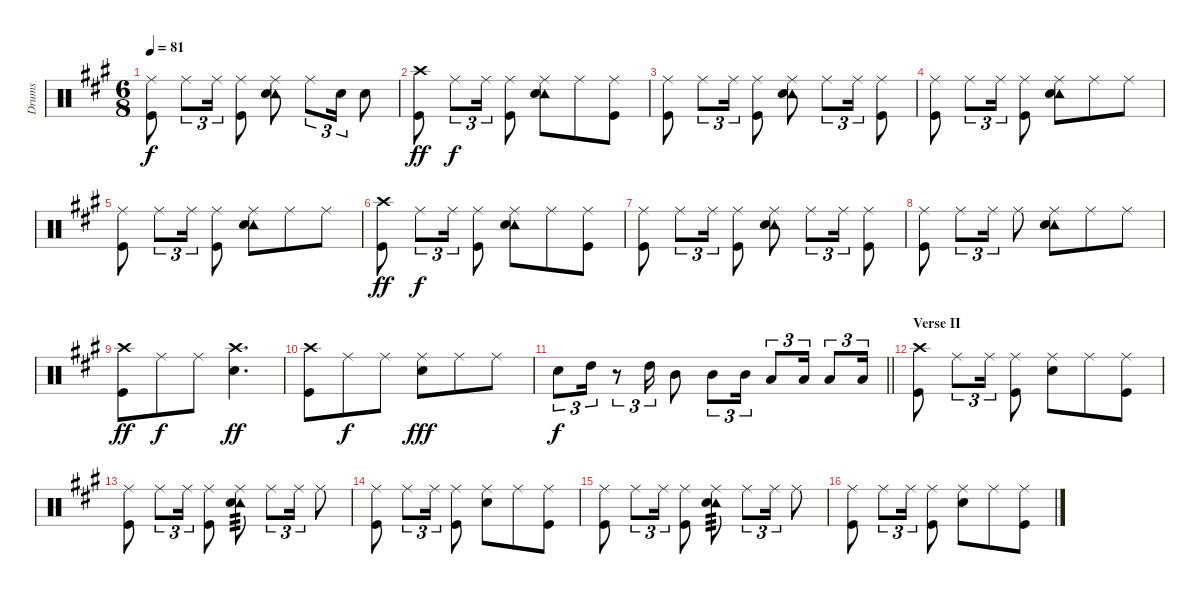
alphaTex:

\track ("Drums" "Drums") {instrument percussion}
\staff {score}
\articulation defaults
\ts (6 8)
\tempo 81
\clef neutral
\ks a
("Ride (middle)" "Kick (hit)").8{dy f} "Ride (middle)".8{tu (3 2)} "Ride (middle)".16{tu (3 2)} ("Ride (middle)" "Kick (hit)").8 ("Ride (middle)" "Tambourine (hit)" "Snare (hit) 2").8 "Ride (middle)".8{tu (3 2)} "Snare (hit) 2".16{tu (3 2)} "Snare (hit) 2".8 |
("Crash high (hit)" "Kick (hit)").8{dy ff} "Ride (middle)".8{tu (3 2) dy f} "Ride (middle)".16{tu (3 2)} ("Ride (middle)" "Kick (hit)").8 ("Ride (middle)" "Tambourine (hit)" "Snare (hit) 2").8 "Ride (middle)".8 ("Ride (middle)" "Kick (hit)").8 |
("Ride (middle)" "Kick (hit)").8 "Ride (middle)".8{tu (3 2)} "Ride (middle)".16{tu (3 2)} ("Ride (middle)" "Kick (hit)").8 ("Ride (middle)" "Tambourine (hit)" "Snare (hit) 2").8 "Ride (middle)".8{tu (3 2)} "Ride (middle)".16{tu (3 2)} ("Ride (middle)" "Kick (hit)").8 |
("Ride (middle)" "Kick (hit)").8 "Ride (middle)".8{tu (3 2)} "Ride (middle)".16{tu (3 2)} ("Ride (middle)" "Kick (hit)").8 ("Ride (middle)" "Tambourine (hit)" "Snare (hit) 2").8 "Ride (middle)".8 "Ride (middle)".8 |
("Ride (middle)" "Kick (hit)").8 "Ride (middle)".8{tu (3 2)} "Ride (middle)".16{tu (3 2)} ("Ride (middle)" "Kick (hit)").8 ("Ride (middle)" "Tambourine (hit)" "Snare (hit) 2").8 "Ride (middle)".8 "Ride (middle)".8 |
("Crash high (hit)" "Kick (hit)").8{dy ff} "Ride (middle)".8{tu (3 2) dy f} "Ride (middle)".16{tu (3 2)} ("Ride (middle)" "Kick (hit)").8 ("Ride (middle)" "Tambourine (hit)" "Snare (hit) 2").8 "Ride (middle)".8 ("Ride (middle)" "Kick (hit)").8 |
("Ride (middle)" "Kick (hit)").8 "Ride (middle)".8{tu (3 2)} "Ride (middle)".16{tu (3 2)} ("Ride (middle)" "Kick (hit)").8 ("Ride (middle)" "Tambourine (hit)" "Snare (hit) 2").8 "Ride (middle)".8{tu (3 2)} "Ride (middle)".16{tu (3 2)} ("Ride (middle)" "Kick (hit)").8 |
("Ride (middle)" "Kick (hit)").8 "Ride (middle)".8{tu (3 2)} "Ride (middle)".16{tu (3 2)} "Ride (middle)".8 ("Ride (middle)" "Tambourine (hit)" "Snare (hit) 2").8 "Ride (middle)".8 "Ride (middle)".8 |
("Crash high (hit)" "Kick (hit)").8{dy ff} "Ride (middle)".8{dy f} "Ride (middle)".8 ("Crash high (hit)" "Snare (hit) 2").4{d dy ff} |
("Crash high (hit)" "Kick (hit)").8 "Ride (middle)".8{dy f} "Ride (middle)".8 ("Ride (middle)" "Snare (hit) 2").8{dy fff} "Ride (middle)".8 "Ride (middle)".8 |
\barLineRight lightlight "Snare (hit) 2".8{tu (3 2) dy f} "High Tom (hit)".16{tu (3 2)}
r.8{tu (3 2)} "High Tom (hit)".16{tu (3 2)} "Mid Tom (hit)".8 "Mid Tom (hit)".8{tu (3 2)} "Mid Tom (hit)".16{tu (3 2)} "Low Tom (hit)".8{tu (3 2)} "Low Tom (hit)".16{tu (3 2)} "Low Floor Tom (hit)".8{tu (3 2)} "Low Floor Tom (hit)".16{tu (3 2)} |
\section ("" "Verse II")
("Crash high (hit)" "Kick (hit)").8 "Ride (middle)".8{tu (3 2)} "Ride (middle)".16{tu (3 2)} ("Ride (middle)" "Kick (hit)").8 ("Ride (middle)" "Snare (hit) 2").8 "Ride (middle)".8 ("Ride (middle)" "Kick (hit)").8 |
("Ride (middle)" "Kick (hit)").8 "Ride (middle)".8{tu (3 2)} "Ride (middle)".16{tu (3 2)} ("Ride (middle)" "Kick (hit)").8 ("Ride (middle)" "Tambourine (hit)" "Snare (hit) 2").8{tp 3} "Ride (middle)".8{tu (3 2)} "Ride (middle)".16{tu (3 2)} "Ride (middle)".8 |
("Ride (middle)" "Kick (hit)").8 "Ride (middle)".8{tu (3 2)} "Ride (middle)".16{tu (3 2)} ("Ride (middle)" "Kick (hit)").8 ("Ride (middle)" "Snare (hit) 2").8 "Ride (middle)".8 ("Ride (middle)" "Kick (hit)").8 |
("Ride (middle)" "Kick (hit)").8 "Ride (middle)".8{tu (3 2)} "Ride (middle)".16{tu (3 2)} ("Ride (middle)" "Kick (hit)").8 ("Ride (middle)" "Tambourine (hit)" "Snare (hit) 2").8{tp 3} "Ride (middle)".8{tu (3 2)} "Ride (middle)".16{tu (3 2)} "Ride (middle)".8 |
("Ride (middle)" "Kick (hit)").8 "Ride (middle)".8{tu (3 2)} "Ride (middle)".16{tu (3 2)} ("Ride (middle)" "Kick (hit)").8 ("Ride (middle)" "Snare (hit) 2").8 "Ride (middle)".8 ("Ride (middle)" "Kick (hit)").8
